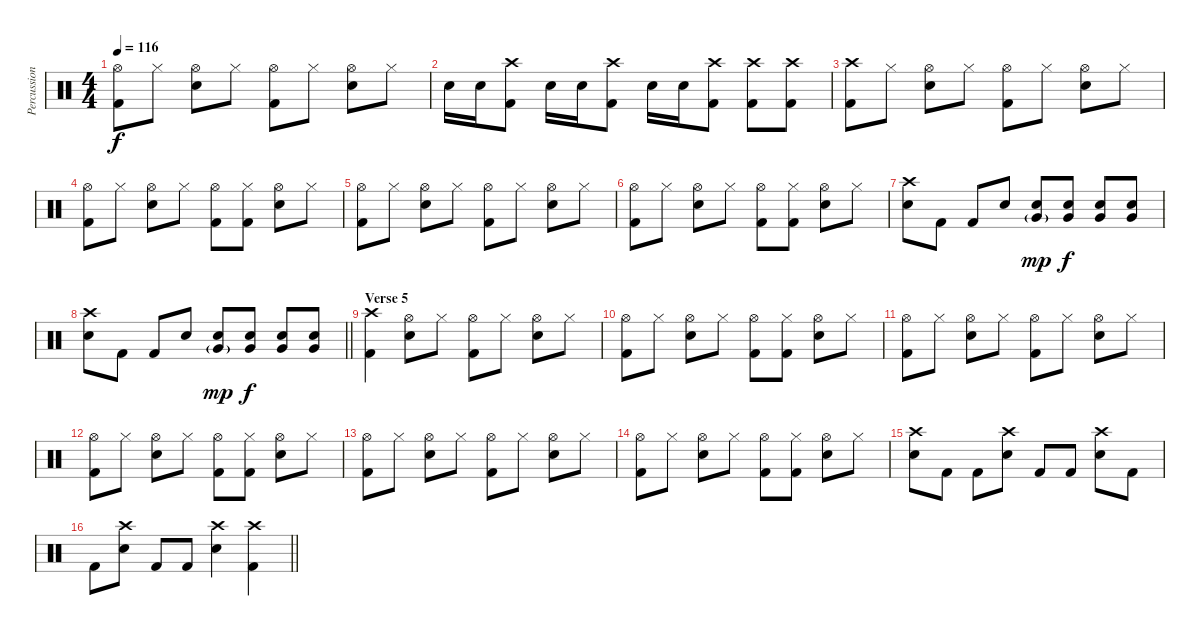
\track ("Percussion" "Percussion") {instrument percussion}
\staff {score}
\articulation defaults
\ts (4 4)
\tempo 116
\clef neutral
\ks c
("Hi-Hat (open)" "Kick (hit) 2").8{dy f} "Hi-Hat (closed)".8 ("Hi-Hat (open)" "Snare (hit) 2").8 "Hi-Hat (closed)".8 ("Hi-Hat (open)" "Kick (hit) 2").8 "Hi-Hat (closed)".8 ("Hi-Hat (open)" "Snare (hit) 2").8 "Hi-Hat (closed)".8 |
"Snare (hit) 2".16 "Snare (hit) 2".16 ("Crash high (hit)" "Kick (hit) 2").8 "Snare (hit) 2".16 "Snare (hit) 2".16 ("Crash high (hit)" "Kick (hit) 2").8 "Snare (hit) 2".16 "Snare (hit) 2".16 ("Crash high (hit)" "Kick (hit) 2").8 ("Crash high (hit)" "Kick (hit) 2").8 ("Crash high (hit)" "Kick (hit) 2").8 |
("Crash high (hit)" "Kick (hit) 2").8 "Hi-Hat (closed)".8 ("Hi-Hat (open)" "Snare (hit) 2").8 "Hi-Hat (closed)".8 ("Hi-Hat (open)" "Kick (hit) 2").8 "Hi-Hat (closed)".8 ("Hi-Hat (open)" "Snare (hit) 2").8 "Hi-Hat (closed)".8 |
("Hi-Hat (open)" "Kick (hit) 2").8 "Hi-Hat (closed)".8 ("Hi-Hat (open)" "Snare (hit) 2").8 "Hi-Hat (closed)".8 ("Hi-Hat (open)" "Kick (hit) 2").8 ("Hi-Hat (closed)" "Kick (hit) 2").8 ("Hi-Hat (open)" "Snare (hit) 2").8 "Hi-Hat (closed)".8 |
("Hi-Hat (open)" "Kick (hit) 2").8 "Hi-Hat (closed)".8 ("Hi-Hat (open)" "Snare (hit) 2").8 "Hi-Hat (closed)".8 ("Hi-Hat (open)" "Kick (hit) 2").8 "Hi-Hat (closed)".8 ("Hi-Hat (open)" "Snare (hit) 2").8 "Hi-Hat (closed)".8 |
("Hi-Hat (open)" "Kick (hit) 2").8 "Hi-Hat (closed)".8 ("Hi-Hat (open)" "Snare (hit) 2").8 "Hi-Hat (closed)".8 ("Hi-Hat (open)" "Kick (hit) 2").8 ("Hi-Hat (closed)" "Kick (hit) 2").8 ("Hi-Hat (open)" "Snare (hit) 2").8 "Hi-Hat (closed)".8 |
("Crash high (hit)" "Snare (hit) 2").8 "Kick (hit) 2".8 "Kick (hit) 2".8 "Snare (hit) 2".8 ("Very Low Tom (hit)"{g} "Snare (hit) 2").8{dy mp} ("Very Low Tom (hit)" "Snare (hit) 2").8{dy f} ("Very Low Tom (hit)" "Snare (hit) 2").8 ("Very Low Tom (hit)" "Snare (hit) 2").8 |
\barLineRight lightlight
("Crash high (hit)" "Snare (hit) 2").8 "Kick (hit) 2".8 "Kick (hit) 2".8 "Snare (hit) 2".8 ("Very Low Tom (hit)"{g} "Snare (hit) 2").8{dy mp} ("Very Low Tom (hit)" "Snare (hit) 2").8{dy f} ("Very Low Tom (hit)" "Snare (hit) 2").8 ("Very Low Tom (hit)" "Snare (hit) 2").8 |
\section ("" "Verse 5")
("Crash high (hit)" "Kick (hit) 2").4 ("Hi-Hat (open)" "Snare (hit) 2").8 "Hi-Hat (closed)".8 ("Hi-Hat (open)" "Kick (hit) 2").8 "Hi-Hat (closed)".8 ("Hi-Hat (open)" "Snare (hit) 2").8 "Hi-Hat (closed)".8 |
("Hi-Hat (open)" "Kick (hit) 2").8 "Hi-Hat (closed)".8 ("Hi-Hat (open)" "Snare (hit) 2").8 "Hi-Hat (closed)".8 ("Hi-Hat (open)" "Kick (hit) 2").8 ("Hi-Hat (closed)" "Kick (hit) 2").8 ("Hi-Hat (open)" "Snare (hit) 2").8 "Hi-Hat (closed)".8 |
("Hi-Hat (open)" "Kick (hit) 2").8 "Hi-Hat (closed)".8 ("Hi-Hat (open)" "Snare (hit) 2").8 "Hi-Hat (closed)".8 ("Hi-Hat (open)" "Kick (hit) 2").8 "Hi-Hat (closed)".8 ("Hi-Hat (open)" "Snare (hit) 2").8 "Hi-Hat (closed)".8 |
("Hi-Hat (open)" "Kick (hit) 2").8 "Hi-Hat (closed)".8 ("Hi-Hat (open)" "Snare (hit) 2").8 "Hi-Hat (closed)".8 ("Hi-Hat (open)" "Kick (hit) 2").8 ("Hi-Hat (closed)" "Kick (hit) 2").8 ("Hi-Hat (open)" "Snare (hit) 2").8 "Hi-Hat (closed)".8 |
("Hi-Hat (open)" "Kick (hit) 2").8 "Hi-Hat (closed)".8 ("Hi-Hat (open)" "Snare (hit) 2").8 "Hi-Hat (closed)".8 ("Hi-Hat (open)" "Kick (hit) 2").8 "Hi-Hat (closed)".8 ("Hi-Hat (open)" "Snare (hit) 2").8 "Hi-Hat (closed)".8 |
("Hi-Hat (open)" "Kick (hit) 2").8 "Hi-Hat (closed)".8 ("Hi-Hat (open)" "Snare (hit) 2").8 "Hi-Hat (closed)".8 ("Hi-Hat (open)" "Kick (hit) 2").8 ("Hi-Hat (closed)" "Kick (hit) 2").8 ("Hi-Hat (open)" "Snare (hit) 2").8 "Hi-Hat (closed)".8 |
("Crash high (hit)" "Snare (hit) 2").8 "Kick (hit) 2".8 "Kick (hit) 2".8 ("Crash high (hit)" "Snare (hit) 2").8 "Kick (hit) 2".8 "Kick (hit) 2".8 ("Crash high (hit)" "Snare (hit) 2").8 "Kick (hit) 2".8 |
\barLineRight lightlight "Kick (hit) 2".8
("Crash high (hit)" "Snare (hit) 2").8 "Kick (hit) 2".8 "Kick (hit) 2".8 ("Crash high (hit)" "Snare (hit) 2").4 ("Crash high (hit)" "Kick (hit) 2").4
